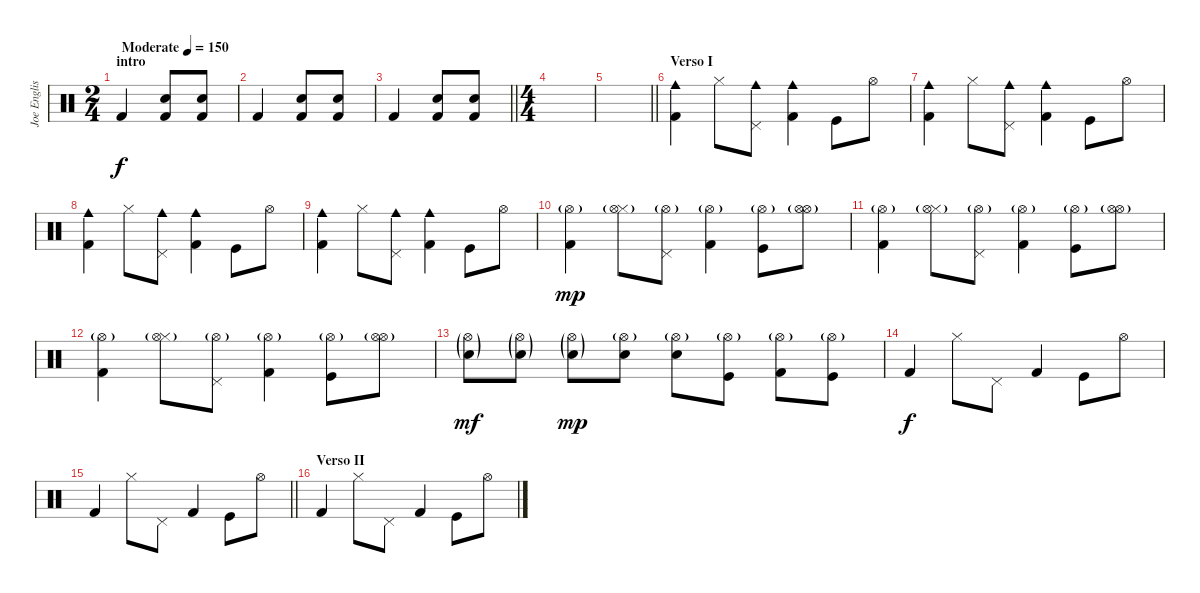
\track ("Joe English" "Joe Englis") {instrument percussion}
\staff {score}
\articulation defaults
\ts (2 4)
\section ("" "intro")
\tempo (150 "Moderate")
\clef neutral
\ks c "Kick (hit) 2".4{dy f}
("Kick (hit) 2" "Snare (hit) 2").8 ("Kick (hit) 2" "Snare (hit) 2").8 |
"Kick (hit) 2".4 ("Kick (hit) 2" "Snare (hit) 2").8 ("Kick (hit) 2" "Snare (hit) 2").8 |
\barLineRight lightlight "Kick (hit) 2".4
("Kick (hit) 2" "Snare (hit) 2").8 ("Kick (hit) 2" "Snare (hit) 2").8 |
\ts (4 4)
\section ("" "")
|
\barLineRight lightlight
|
\section ("" "Verso I")
("Kick (hit) 2" "Cowbell medium (hit)").4 "Hi-Hat (closed)".8 ("Pedal Hi-Hat (hit)" "Cowbell medium (hit)").8 ("Kick (hit) 2" "Cowbell medium (hit)").4 "Kick (hit)".8 "Hi-Hat (open)".8 |
("Kick (hit) 2" "Cowbell medium (hit)").4 "Hi-Hat (closed)".8 ("Pedal Hi-Hat (hit)" "Cowbell medium (hit)").8 ("Kick (hit) 2" "Cowbell medium (hit)").4 "Kick (hit)".8 "Hi-Hat (open)".8 |
("Kick (hit) 2" "Cowbell medium (hit)").4 "Hi-Hat (closed)".8 ("Pedal Hi-Hat (hit)" "Cowbell medium (hit)").8 ("Kick (hit) 2" "Cowbell medium (hit)").4 "Kick (hit)".8 "Hi-Hat (open)".8 |
("Kick (hit) 2" "Cowbell medium (hit)").4 "Hi-Hat (closed)".8 ("Pedal Hi-Hat (hit)" "Cowbell medium (hit)").8 ("Kick (hit) 2" "Cowbell medium (hit)").4 "Kick (hit)".8 "Hi-Hat (open)".8 |
("Kick (hit) 2" "Hi-Hat (open)"{g}).4{dy mp} ("Hi-Hat (closed)" "Hi-Hat (open)"{g}).8 ("Pedal Hi-Hat (hit)" "Hi-Hat (open)"{g}).8 ("Kick (hit) 2" "Hi-Hat (open)"{g}).4 ("Kick (hit)" "Hi-Hat (open)"{g}).8 ("Hi-Hat (open)" "Hi-Hat (open)"{g}).8 |
("Kick (hit) 2" "Hi-Hat (open)"{g}).4 ("Hi-Hat (closed)" "Hi-Hat (open)"{g}).8 ("Pedal Hi-Hat (hit)" "Hi-Hat (open)"{g}).8 ("Kick (hit) 2" "Hi-Hat (open)"{g}).4 ("Kick (hit)" "Hi-Hat (open)"{g}).8 ("Hi-Hat (open)" "Hi-Hat (open)"{g}).8 |
("Kick (hit) 2" "Hi-Hat (open)"{g}).4 ("Hi-Hat (closed)" "Hi-Hat (open)"{g}).8 ("Pedal Hi-Hat (hit)" "Hi-Hat (open)"{g}).8 ("Kick (hit) 2" "Hi-Hat (open)"{g}).4 ("Kick (hit)" "Hi-Hat (open)"{g}).8 ("Hi-Hat (open)" "Hi-Hat (open)"{g}).8 |
("Hi-Hat (open)"{g} "Snare (hit) 2"{g}).8{dy mf} ("Hi-Hat (open)"{g} "Snare (hit) 2"{g}).8 ("Hi-Hat (open)"{g} "Snare (hit) 2"{g}).8{dy mp} ("Hi-Hat (open)"{g} "Snare (hit) 2").8 ("Hi-Hat (open)"{g} "Snare (hit) 2").8 ("Hi-Hat (open)"{g} "Kick (hit)").8 ("Hi-Hat (open)"{g} "Kick (hit) 2").8 ("Hi-Hat (open)"{g} "Kick (hit)").8 |
"Kick (hit) 2".4{dy f} "Hi-Hat (closed)".8 "Pedal Hi-Hat (hit)".8 "Kick (hit) 2".4 "Kick (hit)".8 "Hi-Hat (open)".8 |
\barLineRight lightlight "Kick (hit) 2".4 "Hi-Hat (closed)".8 "Pedal Hi-Hat (hit)".8 "Kick (hit) 2".4 "Kick (hit)".8 "Hi-Hat (open)".8
|
\section ("" "Verso II")
"Kick (hit) 2".4 "Hi-Hat (closed)".8 "Pedal Hi-Hat (hit)".8 "Kick (hit) 2".4 "Kick (hit)".8 "Hi-Hat (open)".8
